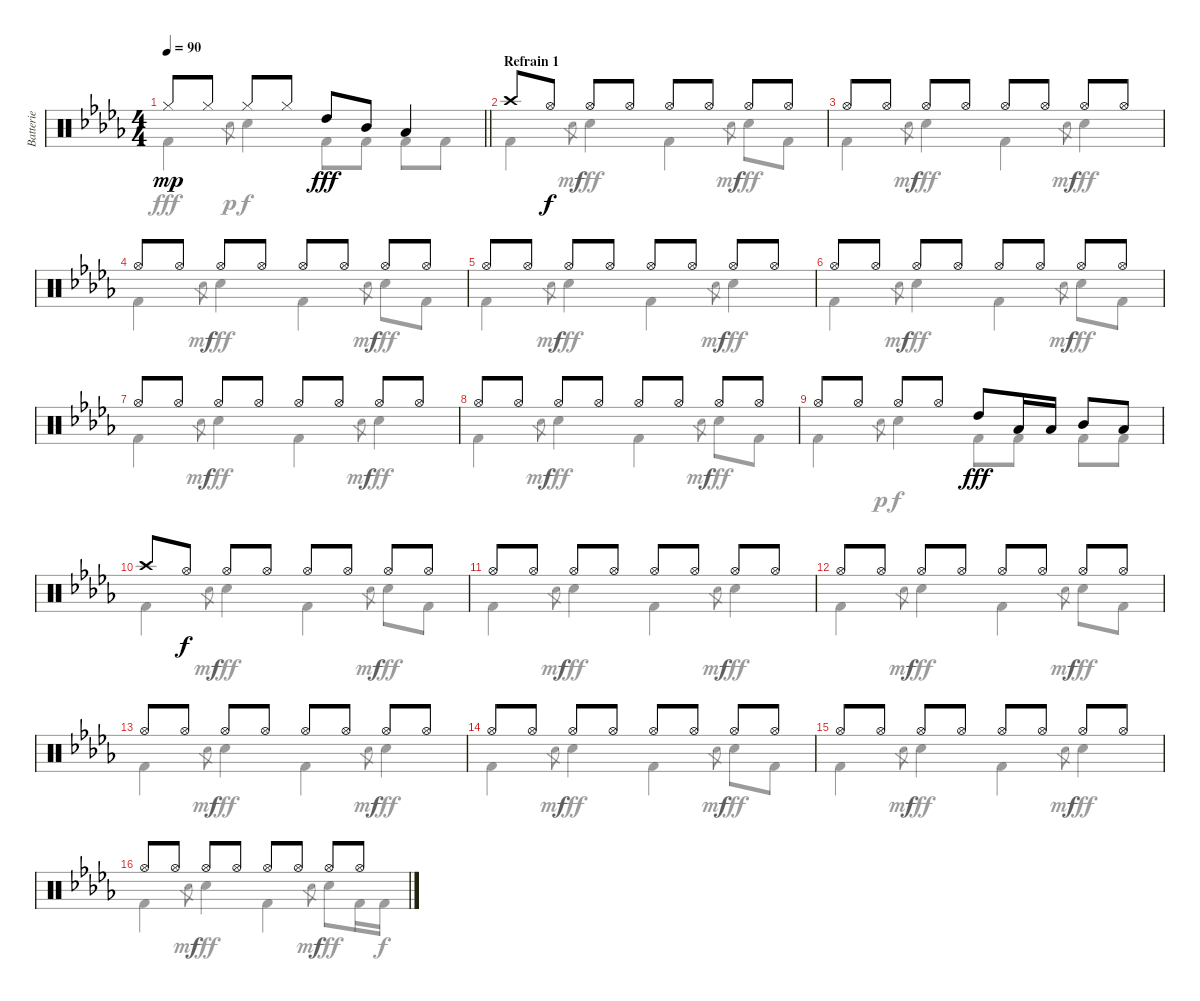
\track ("Batterie" "Batterie") {instrument percussion}
\staff {score}
\articulation defaults
\voice
\ts (4 4)
\tempo 90
\clef neutral
\barLineRight lightlight
\ks db "Hi-Hat (closed)".8{dy mp} "Hi-Hat (closed)".8 "Hi-Hat (closed)".8 "Hi-Hat (closed)".8 "High Tom (hit)".8{dy fff} "Mid Tom (hit)".8 "Low Tom (hit)".4
|
\section ("" "Refrain 1")
"Crash high (hit)".8 "Hi-Hat (open)".8{dy f} "Hi-Hat (open)".8 "Hi-Hat (open)".8 "Hi-Hat (open)".8 "Hi-Hat (open)".8 "Hi-Hat (open)".8 "Hi-Hat (open)".8 |
"Hi-Hat (open)".8 "Hi-Hat (open)".8 "Hi-Hat (open)".8 "Hi-Hat (open)".8 "Hi-Hat (open)".8 "Hi-Hat (open)".8 "Hi-Hat (open)".8 "Hi-Hat (open)".8 |
"Hi-Hat (open)".8 "Hi-Hat (open)".8 "Hi-Hat (open)".8 "Hi-Hat (open)".8 "Hi-Hat (open)".8 "Hi-Hat (open)".8 "Hi-Hat (open)".8 "Hi-Hat (open)".8 |
"Hi-Hat (open)".8 "Hi-Hat (open)".8 "Hi-Hat (open)".8 "Hi-Hat (open)".8 "Hi-Hat (open)".8 "Hi-Hat (open)".8 "Hi-Hat (open)".8 "Hi-Hat (open)".8 |
"Hi-Hat (open)".8 "Hi-Hat (open)".8 "Hi-Hat (open)".8 "Hi-Hat (open)".8 "Hi-Hat (open)".8 "Hi-Hat (open)".8 "Hi-Hat (open)".8 "Hi-Hat (open)".8 |
"Hi-Hat (open)".8 "Hi-Hat (open)".8 "Hi-Hat (open)".8 "Hi-Hat (open)".8 "Hi-Hat (open)".8 "Hi-Hat (open)".8 "Hi-Hat (open)".8 "Hi-Hat (open)".8 |
"Hi-Hat (open)".8 "Hi-Hat (open)".8 "Hi-Hat (open)".8 "Hi-Hat (open)".8 "Hi-Hat (open)".8 "Hi-Hat (open)".8 "Hi-Hat (open)".8 "Hi-Hat (open)".8 |
"Hi-Hat (open)".8 "Hi-Hat (open)".8 "Hi-Hat (open)".8 "Hi-Hat (open)".8 "High Tom (hit)".8{dy fff} "Low Tom (hit)".16 "Low Tom (hit)".16 "Mid Tom (hit)".8 "Low Tom (hit)".8 |
"Crash high (hit)".8 "Hi-Hat (open)".8{dy f} "Hi-Hat (open)".8 "Hi-Hat (open)".8 "Hi-Hat (open)".8 "Hi-Hat (open)".8 "Hi-Hat (open)".8 "Hi-Hat (open)".8 |
"Hi-Hat (open)".8 "Hi-Hat (open)".8 "Hi-Hat (open)".8 "Hi-Hat (open)".8 "Hi-Hat (open)".8 "Hi-Hat (open)".8 "Hi-Hat (open)".8 "Hi-Hat (open)".8 |
"Hi-Hat (open)".8 "Hi-Hat (open)".8 "Hi-Hat (open)".8 "Hi-Hat (open)".8 "Hi-Hat (open)".8 "Hi-Hat (open)".8 "Hi-Hat (open)".8 "Hi-Hat (open)".8 |
"Hi-Hat (open)".8 "Hi-Hat (open)".8 "Hi-Hat (open)".8 "Hi-Hat (open)".8 "Hi-Hat (open)".8 "Hi-Hat (open)".8 "Hi-Hat (open)".8 "Hi-Hat (open)".8 |
"Hi-Hat (open)".8 "Hi-Hat (open)".8 "Hi-Hat (open)".8 "Hi-Hat (open)".8 "Hi-Hat (open)".8 "Hi-Hat (open)".8 "Hi-Hat (open)".8 "Hi-Hat (open)".8 |
"Hi-Hat (open)".8 "Hi-Hat (open)".8 "Hi-Hat (open)".8 "Hi-Hat (open)".8 "Hi-Hat (open)".8 "Hi-Hat (open)".8 "Hi-Hat (open)".8 "Hi-Hat (open)".8 |
"Hi-Hat (open)".8 "Hi-Hat (open)".8 "Hi-Hat (open)".8 "Hi-Hat (open)".8 "Hi-Hat (open)".8 "Hi-Hat (open)".8 "Hi-Hat (open)".8 "Hi-Hat (open)".8
\voice
\clef neutral
\ottava regular
\simile none
\barLineRight lightlight
\ks db "Kick (hit) 2".4{dy fff} "Hand Clap (hit)".8{gr dy p} "Hand Clap (hit)".4{dy f} "Kick (hit) 2".8{dy fff} "Kick (hit) 2".8 "Kick (hit) 2".8 "Kick (hit) 2".8
|
"Kick (hit) 2".4 "Hand Clap (hit)".8{gr dy mf} "Hand Clap (hit)".4{dy fff} "Kick (hit) 2".4 "Hand Clap (hit)".8{gr dy mf} "Hand Clap (hit)".8{dy fff} "Kick (hit) 2".8 |
"Kick (hit) 2".4 "Hand Clap (hit)".8{gr dy mf} "Hand Clap (hit)".4{dy fff} "Kick (hit) 2".4 "Hand Clap (hit)".8{gr dy mf} "Hand Clap (hit)".4{dy fff} |
"Kick (hit) 2".4 "Hand Clap (hit)".8{gr dy mf} "Hand Clap (hit)".4{dy fff} "Kick (hit) 2".4 "Hand Clap (hit)".8{gr dy mf} "Hand Clap (hit)".8{dy fff} "Kick (hit) 2".8 |
"Kick (hit) 2".4 "Hand Clap (hit)".8{gr dy mf} "Hand Clap (hit)".4{dy fff} "Kick (hit) 2".4 "Hand Clap (hit)".8{gr dy mf} "Hand Clap (hit)".4{dy fff} |
"Kick (hit) 2".4 "Hand Clap (hit)".8{gr dy mf} "Hand Clap (hit)".4{dy fff} "Kick (hit) 2".4 "Hand Clap (hit)".8{gr dy mf} "Hand Clap (hit)".8{dy fff} "Kick (hit) 2".8 |
"Kick (hit) 2".4 "Hand Clap (hit)".8{gr dy mf} "Hand Clap (hit)".4{dy fff} "Kick (hit) 2".4 "Hand Clap (hit)".8{gr dy mf} "Hand Clap (hit)".4{dy fff} |
"Kick (hit) 2".4 "Hand Clap (hit)".8{gr dy mf} "Hand Clap (hit)".4{dy fff} "Kick (hit) 2".4 "Hand Clap (hit)".8{gr dy mf} "Hand Clap (hit)".8{dy fff} "Kick (hit) 2".8 |
"Kick (hit) 2".4 "Hand Clap (hit)".8{gr dy p} "Hand Clap (hit)".4{dy f} "Kick (hit) 2".8{dy fff} "Kick (hit) 2".8 "Kick (hit) 2".8 "Kick (hit) 2".8 |
"Kick (hit) 2".4 "Hand Clap (hit)".8{gr dy mf} "Hand Clap (hit)".4{dy fff} "Kick (hit) 2".4 "Hand Clap (hit)".8{gr dy mf} "Hand Clap (hit)".8{dy fff} "Kick (hit) 2".8 |
"Kick (hit) 2".4 "Hand Clap (hit)".8{gr dy mf} "Hand Clap (hit)".4{dy fff} "Kick (hit) 2".4 "Hand Clap (hit)".8{gr dy mf} "Hand Clap (hit)".4{dy fff} |
"Kick (hit) 2".4 "Hand Clap (hit)".8{gr dy mf} "Hand Clap (hit)".4{dy fff} "Kick (hit) 2".4 "Hand Clap (hit)".8{gr dy mf} "Hand Clap (hit)".8{dy fff} "Kick (hit) 2".8 |
"Kick (hit) 2".4 "Hand Clap (hit)".8{gr dy mf} "Hand Clap (hit)".4{dy fff} "Kick (hit) 2".4 "Hand Clap (hit)".8{gr dy mf} "Hand Clap (hit)".4{dy fff} |
"Kick (hit) 2".4 "Hand Clap (hit)".8{gr dy mf} "Hand Clap (hit)".4{dy fff} "Kick (hit) 2".4 "Hand Clap (hit)".8{gr dy mf} "Hand Clap (hit)".8{dy fff} "Kick (hit) 2".8 |
"Kick (hit) 2".4 "Hand Clap (hit)".8{gr dy mf} "Hand Clap (hit)".4{dy fff} "Kick (hit) 2".4 "Hand Clap (hit)".8{gr dy mf} "Hand Clap (hit)".4{dy fff} |
"Kick (hit) 2".4 "Hand Clap (hit)".8{gr dy mf} "Hand Clap (hit)".4{dy fff} "Kick (hit) 2".4 "Hand Clap (hit)".8{gr dy mf} "Hand Clap (hit)".8{dy fff} "Kick (hit) 2".16 "Kick (hit) 2".16{dy f}
